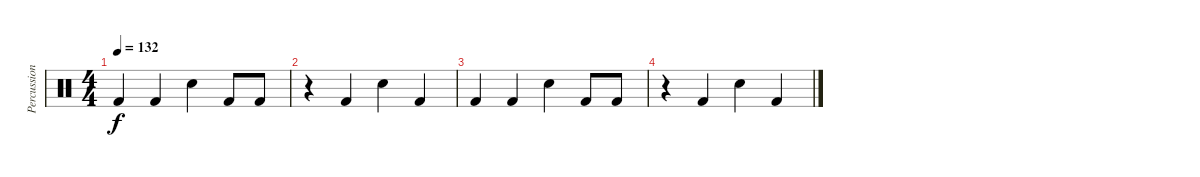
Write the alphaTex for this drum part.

\track ("Percussions" "Percussion") {instrument percussion}
\staff {score}
\articulation defaults
\ts (4 4)
\tempo 132
\clef neutral
\ks c "Kick (hit) 2".4{dy f} "Kick (hit) 2".4 "Electric Snare (hit)".4 "Kick (hit) 2".8 "Kick (hit) 2".8
|
r.4 "Kick (hit) 2".4 "Electric Snare (hit)".4 "Kick (hit) 2".4 |
"Kick (hit) 2".4 "Kick (hit) 2".4 "Electric Snare (hit)".4 "Kick (hit) 2".8 "Kick (hit) 2".8 |
r.4 "Kick (hit) 2".4 "Electric Snare (hit)".4 "Kick (hit) 2".4
